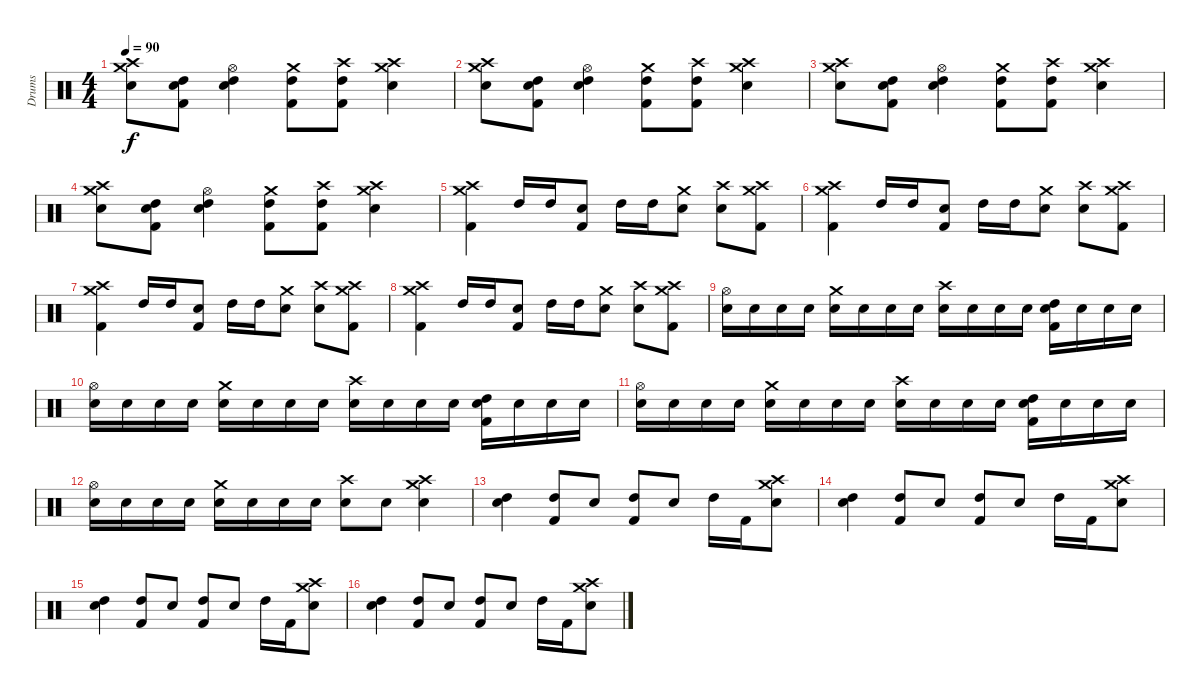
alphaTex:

\track ("Drums" "Drums") {instrument percussion}
\staff {score}
\articulation defaults
\ts (4 4)
\tempo 90
\clef neutral
\ks c
("Electric Snare (hit)" "Crash medium (hit)" "Crash high (hit)").8{dy f} ("Kick (hit) 2" "Electric Snare (hit)" "High Tom (hit)").8 ("Hi-Hat (open)" "High Tom (hit)" "Electric Snare (hit)").4 ("High Tom (hit)" "Kick (hit) 2" "Crash medium (hit)").8 ("High Tom (hit)" "Kick (hit) 2" "Crash high (hit)").8 ("Electric Snare (hit)" "Crash medium (hit)" "Crash high (hit)").4 |
("Electric Snare (hit)" "Crash medium (hit)" "Crash high (hit)").8 ("Kick (hit) 2" "Electric Snare (hit)" "High Tom (hit)").8 ("Hi-Hat (open)" "High Tom (hit)" "Electric Snare (hit)").4 ("High Tom (hit)" "Kick (hit) 2" "Crash medium (hit)").8 ("High Tom (hit)" "Kick (hit) 2" "Crash high (hit)").8 ("Electric Snare (hit)" "Crash medium (hit)" "Crash high (hit)").4 |
("Electric Snare (hit)" "Crash medium (hit)" "Crash high (hit)").8 ("Kick (hit) 2" "Electric Snare (hit)" "High Tom (hit)").8 ("Hi-Hat (open)" "High Tom (hit)" "Electric Snare (hit)").4 ("High Tom (hit)" "Kick (hit) 2" "Crash medium (hit)").8 ("High Tom (hit)" "Kick (hit) 2" "Crash high (hit)").8 ("Electric Snare (hit)" "Crash medium (hit)" "Crash high (hit)").4 |
("Electric Snare (hit)" "Crash medium (hit)" "Crash high (hit)").8 ("Kick (hit) 2" "Electric Snare (hit)" "High Tom (hit)").8 ("Hi-Hat (open)" "High Tom (hit)" "Electric Snare (hit)").4 ("High Tom (hit)" "Kick (hit) 2" "Crash medium (hit)").8 ("High Tom (hit)" "Kick (hit) 2" "Crash high (hit)").8 ("Electric Snare (hit)" "Crash medium (hit)" "Crash high (hit)").4 |
("Kick (hit) 2" "Crash medium (hit)" "Crash high (hit)").4 "High Tom (hit)".16 "High Tom (hit)".16 ("Kick (hit) 2" "Electric Snare (hit)").8 "High Tom (hit)".16 "High Tom (hit)".16 ("Crash medium (hit)" "Electric Snare (hit)").8 ("Crash high (hit)" "Electric Snare (hit)").8 ("Crash high (hit)" "Crash medium (hit)" "Kick (hit) 2").8 |
("Kick (hit) 2" "Crash medium (hit)" "Crash high (hit)").4 "High Tom (hit)".16 "High Tom (hit)".16 ("Kick (hit) 2" "Electric Snare (hit)").8 "High Tom (hit)".16 "High Tom (hit)".16 ("Crash medium (hit)" "Electric Snare (hit)").8 ("Crash high (hit)" "Electric Snare (hit)").8 ("Crash high (hit)" "Crash medium (hit)" "Kick (hit) 2").8 |
("Kick (hit) 2" "Crash medium (hit)" "Crash high (hit)").4 "High Tom (hit)".16 "High Tom (hit)".16 ("Kick (hit) 2" "Electric Snare (hit)").8 "High Tom (hit)".16 "High Tom (hit)".16 ("Crash medium (hit)" "Electric Snare (hit)").8 ("Crash high (hit)" "Electric Snare (hit)").8 ("Crash high (hit)" "Crash medium (hit)" "Kick (hit) 2").8 |
("Kick (hit) 2" "Crash medium (hit)" "Crash high (hit)").4 "High Tom (hit)".16 "High Tom (hit)".16 ("Kick (hit) 2" "Electric Snare (hit)").8 "High Tom (hit)".16 "High Tom (hit)".16 ("Crash medium (hit)" "Electric Snare (hit)").8 ("Crash high (hit)" "Electric Snare (hit)").8 ("Crash high (hit)" "Crash medium (hit)" "Kick (hit) 2").8 |
("Electric Snare (hit)" "Hi-Hat (open)").16 "Electric Snare (hit)".16 "Electric Snare (hit)".16 "Electric Snare (hit)".16 ("Electric Snare (hit)" "Crash medium (hit)").16 "Electric Snare (hit)".16 "Electric Snare (hit)".16 "Electric Snare (hit)".16 ("Electric Snare (hit)" "Crash high (hit)").16 "Electric Snare (hit)".16 "Electric Snare (hit)".16 "Electric Snare (hit)".16 ("Electric Snare (hit)" "High Tom (hit)" "Kick (hit) 2").16 "Electric Snare (hit)".16 "Electric Snare (hit)".16 "Electric Snare (hit)".16 |
("Electric Snare (hit)" "Hi-Hat (open)").16 "Electric Snare (hit)".16 "Electric Snare (hit)".16 "Electric Snare (hit)".16 ("Electric Snare (hit)" "Crash medium (hit)").16 "Electric Snare (hit)".16 "Electric Snare (hit)".16 "Electric Snare (hit)".16 ("Electric Snare (hit)" "Crash high (hit)").16 "Electric Snare (hit)".16 "Electric Snare (hit)".16 "Electric Snare (hit)".16 ("Electric Snare (hit)" "High Tom (hit)" "Kick (hit) 2").16 "Electric Snare (hit)".16 "Electric Snare (hit)".16 "Electric Snare (hit)".16 |
("Electric Snare (hit)" "Hi-Hat (open)").16 "Electric Snare (hit)".16 "Electric Snare (hit)".16 "Electric Snare (hit)".16 ("Electric Snare (hit)" "Crash medium (hit)").16 "Electric Snare (hit)".16 "Electric Snare (hit)".16 "Electric Snare (hit)".16 ("Electric Snare (hit)" "Crash high (hit)").16 "Electric Snare (hit)".16 "Electric Snare (hit)".16 "Electric Snare (hit)".16 ("Electric Snare (hit)" "High Tom (hit)" "Kick (hit) 2").16 "Electric Snare (hit)".16 "Electric Snare (hit)".16 "Electric Snare (hit)".16 |
("Electric Snare (hit)" "Hi-Hat (open)").16 "Electric Snare (hit)".16 "Electric Snare (hit)".16 "Electric Snare (hit)".16 ("Electric Snare (hit)" "Crash medium (hit)").16 "Electric Snare (hit)".16 "Electric Snare (hit)".16 "Electric Snare (hit)".16 ("Electric Snare (hit)" "Crash high (hit)").8 "Electric Snare (hit)".8 ("Electric Snare (hit)" "Crash high (hit)" "Crash medium (hit)").4 |
("Electric Snare (hit)" "High Tom (hit)").4 ("High Tom (hit)" "Kick (hit) 2").8 "Electric Snare (hit)".8 ("Kick (hit) 2" "High Tom (hit)").8 "Electric Snare (hit)".8 "High Tom (hit)".16 "Kick (hit) 2".16 ("Electric Snare (hit)" "Crash medium (hit)" "Crash high (hit)").8 |
("Electric Snare (hit)" "High Tom (hit)").4 ("High Tom (hit)" "Kick (hit) 2").8 "Electric Snare (hit)".8 ("Kick (hit) 2" "High Tom (hit)").8 "Electric Snare (hit)".8 "High Tom (hit)".16 "Kick (hit) 2".16 ("Electric Snare (hit)" "Crash medium (hit)" "Crash high (hit)").8 |
("Electric Snare (hit)" "High Tom (hit)").4 ("High Tom (hit)" "Kick (hit) 2").8 "Electric Snare (hit)".8 ("Kick (hit) 2" "High Tom (hit)").8 "Electric Snare (hit)".8 "High Tom (hit)".16 "Kick (hit) 2".16 ("Electric Snare (hit)" "Crash medium (hit)" "Crash high (hit)").8 |
("Electric Snare (hit)" "High Tom (hit)").4 ("High Tom (hit)" "Kick (hit) 2").8 "Electric Snare (hit)".8 ("Kick (hit) 2" "High Tom (hit)").8 "Electric Snare (hit)".8 "High Tom (hit)".16 "Kick (hit) 2".16 ("Electric Snare (hit)" "Crash medium (hit)" "Crash high (hit)").8
